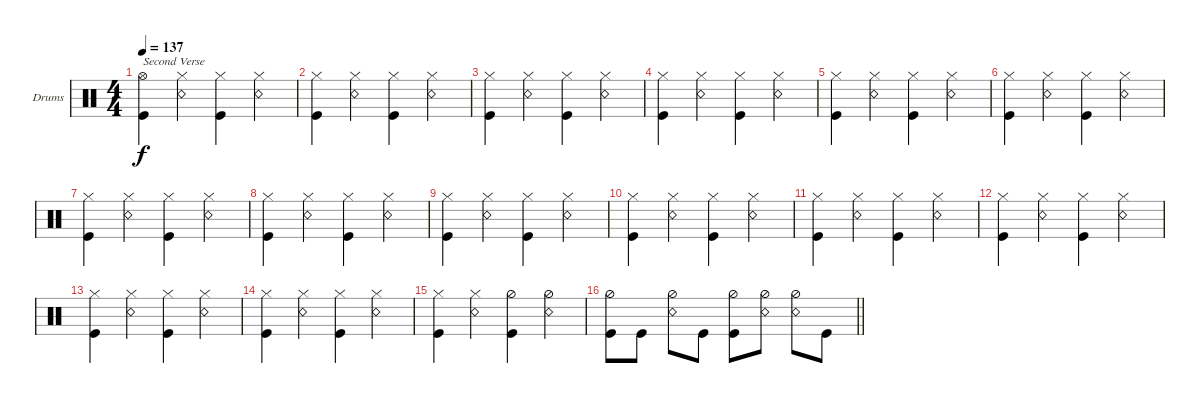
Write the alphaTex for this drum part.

\defaultSystemsLayout 4
\bracketExtendMode groupsimilarinstruments
\firstSystemTrackNameOrientation horizontal
\otherSystemsTrackNameOrientation horizontal
\track ("Drums" "Drums") {instrument percussion}
\staff {score}
\articulation defaults
\ts (4 4)
\tempo 137
\clef neutral
\scale
0.333333
\ks c
("Kick (hit)" "Hi-Hat (open)").4{txt "Second Verse" dy f} ("Snare (rim shot)" "Hi-Hat (closed)").4 ("Kick (hit)" "Hi-Hat (closed)").4 ("Snare (rim shot)" "Hi-Hat (closed)").4 |
\scale
0.333333 ("Kick (hit)" "Hi-Hat (closed)").4 ("Snare (rim shot)" "Hi-Hat (closed)").4 ("Kick (hit)" "Hi-Hat (closed)").4 ("Snare (rim shot)" "Hi-Hat (closed)").4 |
\scale
0.333333 ("Kick (hit)" "Hi-Hat (closed)").4 ("Snare (rim shot)" "Hi-Hat (closed)").4 ("Kick (hit)" "Hi-Hat (closed)").4 ("Snare (rim shot)" "Hi-Hat (closed)").4 |
\scale
0.333333 ("Kick (hit)" "Hi-Hat (closed)").4 ("Snare (rim shot)" "Hi-Hat (closed)").4 ("Kick (hit)" "Hi-Hat (closed)").4 ("Snare (rim shot)" "Hi-Hat (closed)").4 |
\scale
0.333333 ("Kick (hit)" "Hi-Hat (closed)").4 ("Snare (rim shot)" "Hi-Hat (closed)").4 ("Kick (hit)" "Hi-Hat (closed)").4 ("Snare (rim shot)" "Hi-Hat (closed)").4 |
\scale
0.333333 ("Kick (hit)" "Hi-Hat (closed)").4 ("Snare (rim shot)" "Hi-Hat (closed)").4 ("Kick (hit)" "Hi-Hat (closed)").4 ("Snare (rim shot)" "Hi-Hat (closed)").4 |
\scale
0.333333 ("Kick (hit)" "Hi-Hat (closed)").4 ("Snare (rim shot)" "Hi-Hat (closed)").4 ("Kick (hit)" "Hi-Hat (closed)").4 ("Snare (rim shot)" "Hi-Hat (closed)").4 |
\scale
0.333333 ("Kick (hit)" "Hi-Hat (closed)").4 ("Snare (rim shot)" "Hi-Hat (closed)").4 ("Kick (hit)" "Hi-Hat (closed)").4 ("Snare (rim shot)" "Hi-Hat (closed)").4 |
\scale
0.333333 ("Kick (hit)" "Hi-Hat (closed)").4 ("Snare (rim shot)" "Hi-Hat (closed)").4 ("Kick (hit)" "Hi-Hat (closed)").4 ("Snare (rim shot)" "Hi-Hat (closed)").4 |
\scale
0.333333 ("Kick (hit)" "Hi-Hat (closed)").4 ("Snare (rim shot)" "Hi-Hat (closed)").4 ("Kick (hit)" "Hi-Hat (closed)").4 ("Snare (rim shot)" "Hi-Hat (closed)").4 |
\scale
0.333333 ("Kick (hit)" "Hi-Hat (closed)").4 ("Snare (rim shot)" "Hi-Hat (closed)").4 ("Kick (hit)" "Hi-Hat (closed)").4 ("Snare (rim shot)" "Hi-Hat (closed)").4 |
\scale
0.333333 ("Kick (hit)" "Hi-Hat (closed)").4 ("Snare (rim shot)" "Hi-Hat (closed)").4 ("Kick (hit)" "Hi-Hat (closed)").4 ("Snare (rim shot)" "Hi-Hat (closed)").4 |
\scale
0.333333 ("Kick (hit)" "Hi-Hat (closed)").4 ("Snare (rim shot)" "Hi-Hat (closed)").4 ("Kick (hit)" "Hi-Hat (closed)").4 ("Snare (rim shot)" "Hi-Hat (closed)").4 |
\scale
0.333333 ("Kick (hit)" "Hi-Hat (closed)").4 ("Snare (rim shot)" "Hi-Hat (closed)").4 ("Kick (hit)" "Hi-Hat (closed)").4 ("Snare (rim shot)" "Hi-Hat (closed)").4 |
\scale
0.333333 ("Kick (hit)" "Hi-Hat (closed)").4 ("Snare (rim shot)" "Hi-Hat (closed)").4 ("Kick (hit)" "Hi-Hat (half)").4 ("Snare (rim shot)" "Hi-Hat (half)").4 |
\scale
0.333333
\barLineRight lightlight
("Kick (hit)" "Hi-Hat (half)").8 "Kick (hit)".8 ("Snare (rim shot)" "Hi-Hat (half)").8 "Kick (hit)".8 ("Kick (hit)" "Hi-Hat (half)").8 ("Snare (rim shot)" "Hi-Hat (half)").8 ("Snare (rim shot)" "Hi-Hat (half)").8 "Kick (hit)".8
